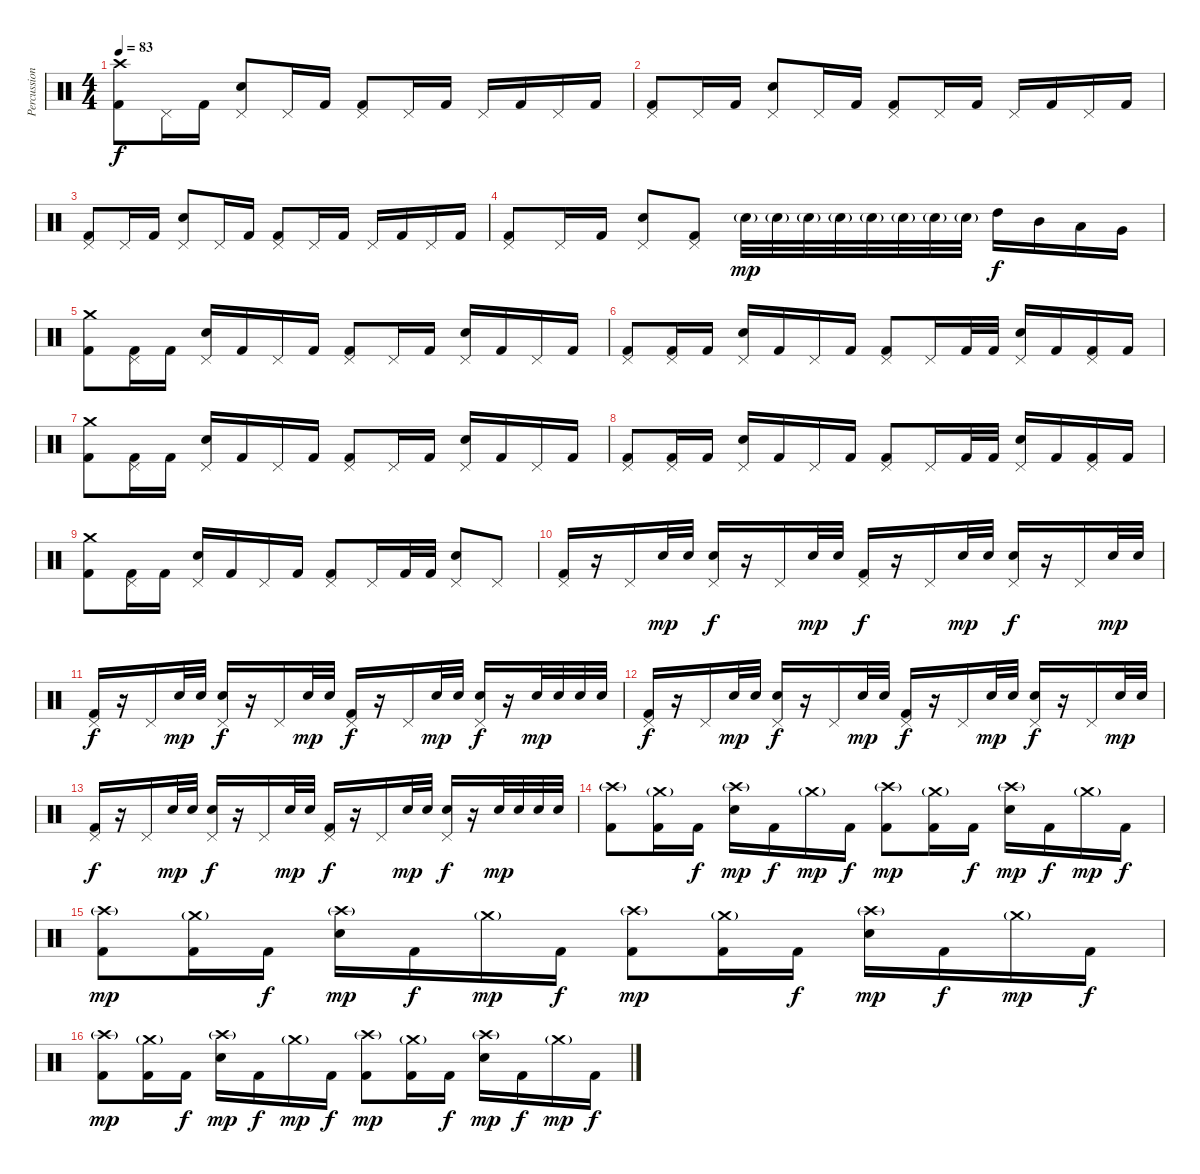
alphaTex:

\track ("Percussions" "Percussion") {instrument percussion}
\staff {score}
\articulation defaults
\ts (4 4)
\tempo 83
\clef neutral
\ks c
("Crash high (hit)" "Kick (hit) 2").8{dy f} "Pedal Hi-Hat (hit)".16 "Kick (hit) 2".16 ("Pedal Hi-Hat (hit)" "Electric Snare (hit)").8 "Pedal Hi-Hat (hit)".16 "Kick (hit) 2".16 ("Pedal Hi-Hat (hit)" "Kick (hit) 2").8 "Pedal Hi-Hat (hit)".16 "Kick (hit) 2".16 "Pedal Hi-Hat (hit)".16 "Kick (hit) 2".16 "Pedal Hi-Hat (hit)".16 "Kick (hit) 2".16 |
("Pedal Hi-Hat (hit)" "Kick (hit) 2").8 "Pedal Hi-Hat (hit)".16 "Kick (hit) 2".16 ("Pedal Hi-Hat (hit)" "Electric Snare (hit)").8 "Pedal Hi-Hat (hit)".16 "Kick (hit) 2".16 ("Pedal Hi-Hat (hit)" "Kick (hit) 2").8 "Pedal Hi-Hat (hit)".16 "Kick (hit) 2".16 "Pedal Hi-Hat (hit)".16 "Kick (hit) 2".16 "Pedal Hi-Hat (hit)".16 "Kick (hit) 2".16 |
("Pedal Hi-Hat (hit)" "Kick (hit) 2").8 "Pedal Hi-Hat (hit)".16 "Kick (hit) 2".16 ("Pedal Hi-Hat (hit)" "Electric Snare (hit)").8 "Pedal Hi-Hat (hit)".16 "Kick (hit) 2".16 ("Pedal Hi-Hat (hit)" "Kick (hit) 2").8 "Pedal Hi-Hat (hit)".16 "Kick (hit) 2".16 "Pedal Hi-Hat (hit)".16 "Kick (hit) 2".16 "Pedal Hi-Hat (hit)".16 "Kick (hit) 2".16 |
("Pedal Hi-Hat (hit)" "Kick (hit) 2").8 "Pedal Hi-Hat (hit)".16 "Kick (hit) 2".16 ("Pedal Hi-Hat (hit)" "Electric Snare (hit)").8 ("Pedal Hi-Hat (hit)" "Kick (hit) 2").8 "Electric Snare (hit)"{g}.32{dy mp} "Electric Snare (hit)"{g}.32 "Electric Snare (hit)"{g}.32 "Electric Snare (hit)"{g}.32 "Electric Snare (hit)"{g}.32 "Electric Snare (hit)"{g}.32 "Electric Snare (hit)"{g}.32 "Electric Snare (hit)"{g}.32 "High Tom (hit)".16{dy f} "Mid Tom (hit)".16 "Low Tom (hit)".16 "Very Low Tom (hit)".16 |
("Crash medium (hit)" "Kick (hit) 2").8 ("Pedal Hi-Hat (hit)" "Kick (hit) 2").16 "Kick (hit) 2".16 ("Pedal Hi-Hat (hit)" "Electric Snare (hit)").16 "Kick (hit) 2".16 "Pedal Hi-Hat (hit)".16 "Kick (hit) 2".16 ("Pedal Hi-Hat (hit)" "Kick (hit) 2").8 "Pedal Hi-Hat (hit)".16 "Kick (hit) 2".16 ("Pedal Hi-Hat (hit)" "Electric Snare (hit)").16 "Kick (hit) 2".16 "Pedal Hi-Hat (hit)".16 "Kick (hit) 2".16 |
("Pedal Hi-Hat (hit)" "Kick (hit) 2").8 ("Pedal Hi-Hat (hit)" "Kick (hit) 2").16 "Kick (hit) 2".16 ("Pedal Hi-Hat (hit)" "Electric Snare (hit)").16 "Kick (hit) 2".16 "Pedal Hi-Hat (hit)".16 "Kick (hit) 2".16 ("Pedal Hi-Hat (hit)" "Kick (hit) 2").8 "Pedal Hi-Hat (hit)".16 "Kick (hit) 2".32 "Kick (hit) 2".32 ("Pedal Hi-Hat (hit)" "Electric Snare (hit)").16 "Kick (hit) 2".16 ("Pedal Hi-Hat (hit)" "Kick (hit) 2").16 "Kick (hit) 2".16 |
("Crash medium (hit)" "Kick (hit) 2").8 ("Pedal Hi-Hat (hit)" "Kick (hit) 2").16 "Kick (hit) 2".16 ("Pedal Hi-Hat (hit)" "Electric Snare (hit)").16 "Kick (hit) 2".16 "Pedal Hi-Hat (hit)".16 "Kick (hit) 2".16 ("Pedal Hi-Hat (hit)" "Kick (hit) 2").8 "Pedal Hi-Hat (hit)".16 "Kick (hit) 2".16 ("Pedal Hi-Hat (hit)" "Electric Snare (hit)").16 "Kick (hit) 2".16 "Pedal Hi-Hat (hit)".16 "Kick (hit) 2".16 |
("Pedal Hi-Hat (hit)" "Kick (hit) 2").8 ("Pedal Hi-Hat (hit)" "Kick (hit) 2").16 "Kick (hit) 2".16 ("Pedal Hi-Hat (hit)" "Electric Snare (hit)").16 "Kick (hit) 2".16 "Pedal Hi-Hat (hit)".16 "Kick (hit) 2".16 ("Pedal Hi-Hat (hit)" "Kick (hit) 2").8 "Pedal Hi-Hat (hit)".16 "Kick (hit) 2".32 "Kick (hit) 2".32 ("Pedal Hi-Hat (hit)" "Electric Snare (hit)").16 "Kick (hit) 2".16 ("Pedal Hi-Hat (hit)" "Kick (hit) 2").16 "Kick (hit) 2".16 |
("Crash medium (hit)" "Kick (hit) 2").8 ("Pedal Hi-Hat (hit)" "Kick (hit) 2").16 "Kick (hit) 2".16 ("Pedal Hi-Hat (hit)" "Electric Snare (hit)").16 "Kick (hit) 2".16 "Pedal Hi-Hat (hit)".16 "Kick (hit) 2".16 ("Pedal Hi-Hat (hit)" "Kick (hit) 2").8 "Pedal Hi-Hat (hit)".16 "Kick (hit) 2".32 "Kick (hit) 2".32 ("Pedal Hi-Hat (hit)" "Electric Snare (hit)").8 "Pedal Hi-Hat (hit)".8 |
("Pedal Hi-Hat (hit)" "Kick (hit) 2").16 r.16 "Pedal Hi-Hat (hit)".16 "Snare (hit) 2".32{dy mp} "Snare (hit) 2".32 ("Pedal Hi-Hat (hit)" "Electric Snare (hit)").16{dy f} r.16 "Pedal Hi-Hat (hit)".16 "Snare (hit) 2".32{dy mp} "Snare (hit) 2".32 ("Pedal Hi-Hat (hit)" "Kick (hit) 2").16{dy f} r.16 "Pedal Hi-Hat (hit)".16 "Snare (hit) 2".32{dy mp} "Snare (hit) 2".32 ("Pedal Hi-Hat (hit)" "Electric Snare (hit)").16{dy f} r.16 "Pedal Hi-Hat (hit)".16 "Snare (hit) 2".32{dy mp} "Snare (hit) 2".32 |
("Pedal Hi-Hat (hit)" "Kick (hit) 2").16{dy f} r.16 "Pedal Hi-Hat (hit)".16 "Snare (hit) 2".32{dy mp} "Snare (hit) 2".32 ("Pedal Hi-Hat (hit)" "Electric Snare (hit)").16{dy f} r.16 "Pedal Hi-Hat (hit)".16 "Snare (hit) 2".32{dy mp} "Snare (hit) 2".32 ("Pedal Hi-Hat (hit)" "Kick (hit) 2").16{dy f} r.16 "Pedal Hi-Hat (hit)".16 "Snare (hit) 2".32{dy mp} "Snare (hit) 2".32 ("Pedal Hi-Hat (hit)" "Electric Snare (hit)").16{dy f} r.16 "Snare (hit) 2".32{dy mp} "Snare (hit) 2".32 "Snare (hit) 2".32 "Snare (hit) 2".32 |
("Pedal Hi-Hat (hit)" "Kick (hit) 2").16{dy f} r.16 "Pedal Hi-Hat (hit)".16 "Snare (hit) 2".32{dy mp} "Snare (hit) 2".32 ("Pedal Hi-Hat (hit)" "Electric Snare (hit)").16{dy f} r.16 "Pedal Hi-Hat (hit)".16 "Snare (hit) 2".32{dy mp} "Snare (hit) 2".32 ("Pedal Hi-Hat (hit)" "Kick (hit) 2").16{dy f} r.16 "Pedal Hi-Hat (hit)".16 "Snare (hit) 2".32{dy mp} "Snare (hit) 2".32 ("Pedal Hi-Hat (hit)" "Electric Snare (hit)").16{dy f} r.16 "Pedal Hi-Hat (hit)".16 "Snare (hit) 2".32{dy mp} "Snare (hit) 2".32 |
("Pedal Hi-Hat (hit)" "Kick (hit) 2").16{dy f} r.16 "Pedal Hi-Hat (hit)".16 "Snare (hit) 2".32{dy mp} "Snare (hit) 2".32 ("Pedal Hi-Hat (hit)" "Electric Snare (hit)").16{dy f} r.16 "Pedal Hi-Hat (hit)".16 "Snare (hit) 2".32{dy mp} "Snare (hit) 2".32 ("Pedal Hi-Hat (hit)" "Kick (hit) 2").16{dy f} r.16 "Pedal Hi-Hat (hit)".16 "Snare (hit) 2".32{dy mp} "Snare (hit) 2".32 ("Pedal Hi-Hat (hit)" "Electric Snare (hit)").16{dy f} r.16 "Snare (hit) 2".32{dy mp} "Snare (hit) 2".32 "Snare (hit) 2".32 "Snare (hit) 2".32 |
("Crash high (hit)"{g} "Kick (hit) 2").8 ("Crash medium (hit)"{g} "Kick (hit) 2").16 "Kick (hit) 2".16{dy f} ("Crash high (hit)"{g} "Electric Snare (hit)").16{dy mp} "Kick (hit) 2".16{dy f} "Crash medium (hit)"{g}.16{dy mp} "Kick (hit) 2".16{dy f} ("Crash high (hit)"{g} "Kick (hit) 2").8{dy mp} ("Crash medium (hit)"{g} "Kick (hit) 2").16 "Kick (hit) 2".16{dy f} ("Crash high (hit)"{g} "Electric Snare (hit)").16{dy mp} "Kick (hit) 2".16{dy f} "Crash medium (hit)"{g}.16{dy mp} "Kick (hit) 2".16{dy f} |
("Crash high (hit)"{g} "Kick (hit) 2").8{dy mp} ("Crash medium (hit)"{g} "Kick (hit) 2").16 "Kick (hit) 2".16{dy f} ("Crash high (hit)"{g} "Electric Snare (hit)").16{dy mp} "Kick (hit) 2".16{dy f} "Crash medium (hit)"{g}.16{dy mp} "Kick (hit) 2".16{dy f} ("Crash high (hit)"{g} "Kick (hit) 2").8{dy mp} ("Crash medium (hit)"{g} "Kick (hit) 2").16 "Kick (hit) 2".16{dy f} ("Crash high (hit)"{g} "Electric Snare (hit)").16{dy mp} "Kick (hit) 2".16{dy f} "Crash medium (hit)"{g}.16{dy mp} "Kick (hit) 2".16{dy f} |
("Crash high (hit)"{g} "Kick (hit) 2").8{dy mp} ("Crash medium (hit)"{g} "Kick (hit) 2").16 "Kick (hit) 2".16{dy f} ("Crash high (hit)"{g} "Electric Snare (hit)").16{dy mp} "Kick (hit) 2".16{dy f} "Crash medium (hit)"{g}.16{dy mp} "Kick (hit) 2".16{dy f} ("Crash high (hit)"{g} "Kick (hit) 2").8{dy mp} ("Crash medium (hit)"{g} "Kick (hit) 2").16 "Kick (hit) 2".16{dy f} ("Crash high (hit)"{g} "Electric Snare (hit)").16{dy mp} "Kick (hit) 2".16{dy f} "Crash medium (hit)"{g}.16{dy mp} "Kick (hit) 2".16{dy f}
